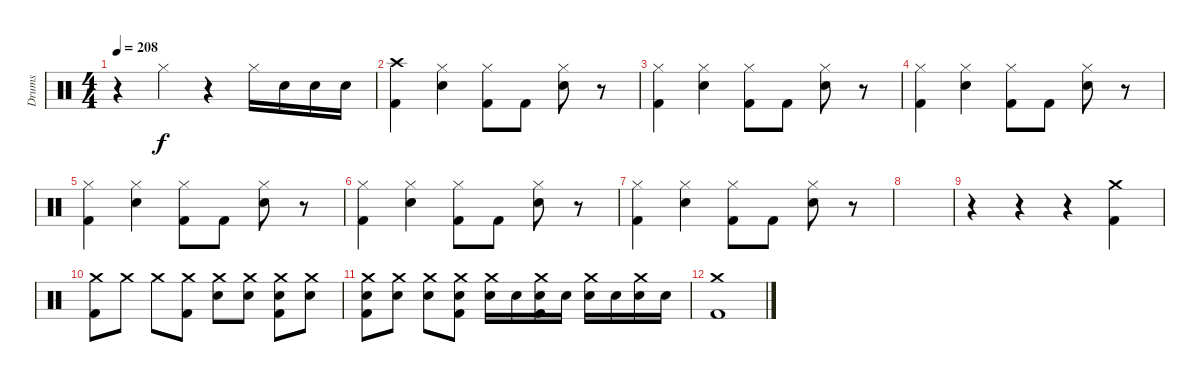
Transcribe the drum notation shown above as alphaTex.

\track ("Drums" "Drums") {instrument percussion}
\staff {score}
\articulation defaults
\ts (4 4)
\tempo 208
\clef neutral
\ks c
r.4{dy f} "Hi-Hat (closed)".4 r.4 "Hi-Hat (closed)".16 "Snare (hit) 2".16 "Snare (hit) 2".16 "Snare (hit) 2".16 |
("Crash high (hit)" "Kick (hit) 2").4 ("Hi-Hat (closed)" "Snare (hit) 2").4 ("Hi-Hat (closed)" "Kick (hit) 2").8 "Kick (hit) 2".8 ("Hi-Hat (closed)" "Snare (hit) 2").8 r.8 |
("Hi-Hat (closed)" "Kick (hit) 2").4 ("Hi-Hat (closed)" "Snare (hit) 2").4 ("Hi-Hat (closed)" "Kick (hit) 2").8 "Kick (hit) 2".8 ("Hi-Hat (closed)" "Snare (hit) 2").8 r.8 |
("Hi-Hat (closed)" "Kick (hit) 2").4 ("Hi-Hat (closed)" "Snare (hit) 2").4 ("Hi-Hat (closed)" "Kick (hit) 2").8 "Kick (hit) 2".8 ("Hi-Hat (closed)" "Snare (hit) 2").8 r.8 |
("Hi-Hat (closed)" "Kick (hit) 2").4 ("Hi-Hat (closed)" "Snare (hit) 2").4 ("Hi-Hat (closed)" "Kick (hit) 2").8 "Kick (hit) 2".8 ("Hi-Hat (closed)" "Snare (hit) 2").8 r.8 |
("Hi-Hat (closed)" "Kick (hit) 2").4 ("Hi-Hat (closed)" "Snare (hit) 2").4 ("Hi-Hat (closed)" "Kick (hit) 2").8 "Kick (hit) 2".8 ("Hi-Hat (closed)" "Snare (hit) 2").8 r.8 |
("Hi-Hat (closed)" "Kick (hit) 2").4 ("Hi-Hat (closed)" "Snare (hit) 2").4 ("Hi-Hat (closed)" "Kick (hit) 2").8 "Kick (hit) 2".8 ("Hi-Hat (closed)" "Snare (hit) 2").8 r.8 |
|
r.4 r.4 r.4 ("Crash medium (hit)" "Kick (hit) 2").4 |
("Crash medium (hit)" "Kick (hit) 2").8 "Crash medium (hit)".8 "Crash medium (hit)".8 ("Crash medium (hit)" "Kick (hit) 2").8 ("Crash medium (hit)" "Snare (hit) 2").8 ("Crash medium (hit)" "Snare (hit) 2").8 ("Crash medium (hit)" "Snare (hit) 2" "Kick (hit) 2").8 ("Crash medium (hit)" "Snare (hit) 2").8 |
("Crash medium (hit)" "Snare (hit) 2" "Kick (hit) 2").8 ("Crash medium (hit)" "Snare (hit) 2").8 ("Crash medium (hit)" "Snare (hit) 2").8 ("Crash medium (hit)" "Snare (hit) 2" "Kick (hit) 2").8 ("Crash medium (hit)" "Snare (hit) 2").16 "Snare (hit) 2".16 ("Crash medium (hit)" "Snare (hit) 2" "Kick (hit) 2").16 "Snare (hit) 2".16 ("Crash medium (hit)" "Snare (hit) 2").16 "Snare (hit) 2".16 ("Crash medium (hit)" "Snare (hit) 2").16 "Snare (hit) 2".16 |
("Crash medium (hit)" "Kick (hit) 2").1
